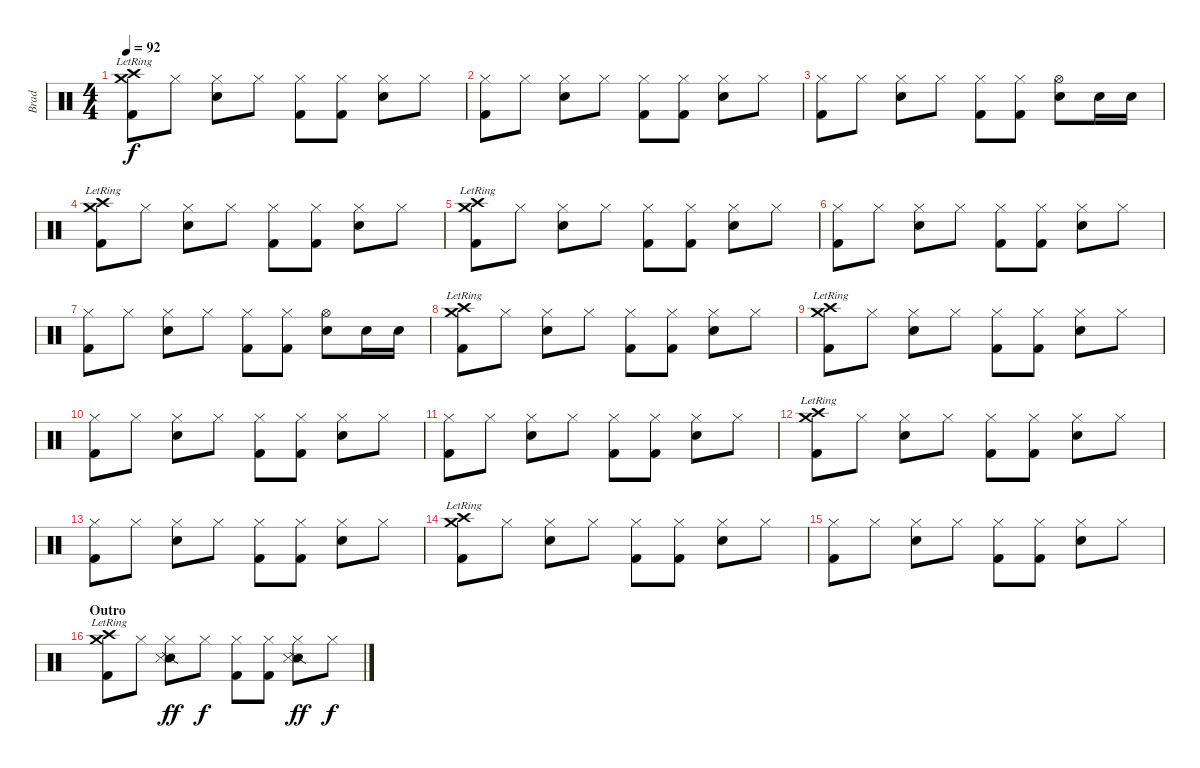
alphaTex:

\track ("Brad" "Brad") {instrument percussion}
\staff {score}
\articulation defaults
\ts (4 4)
\tempo 92
\clef neutral
\ks c
("Crash high (hit)"{lr} "Crash medium (hit)"{lr} "Kick (hit) 2").8{dy f} "Hi-Hat (closed)".8 ("Hi-Hat (closed)" "Electric Snare (hit)").8 "Hi-Hat (closed)".8 ("Hi-Hat (closed)" "Kick (hit) 2").8 ("Hi-Hat (closed)" "Kick (hit) 2").8 ("Hi-Hat (closed)" "Electric Snare (hit)").8 "Hi-Hat (closed)".8 |
("Hi-Hat (closed)" "Kick (hit) 2").8 "Hi-Hat (closed)".8 ("Hi-Hat (closed)" "Electric Snare (hit)").8 "Hi-Hat (closed)".8 ("Hi-Hat (closed)" "Kick (hit) 2").8 ("Hi-Hat (closed)" "Kick (hit) 2").8 ("Hi-Hat (closed)" "Electric Snare (hit)").8 "Hi-Hat (closed)".8 |
("Hi-Hat (closed)" "Kick (hit) 2").8 "Hi-Hat (closed)".8 ("Hi-Hat (closed)" "Electric Snare (hit)").8 "Hi-Hat (closed)".8 ("Hi-Hat (closed)" "Kick (hit) 2").8 ("Hi-Hat (closed)" "Kick (hit) 2").8 ("Hi-Hat (open)" "Electric Snare (hit)").8 "Electric Snare (hit)".16 "Electric Snare (hit)".16 |
("Crash high (hit)"{lr} "Crash medium (hit)"{lr} "Kick (hit) 2").8 "Hi-Hat (closed)".8 ("Hi-Hat (closed)" "Electric Snare (hit)").8 "Hi-Hat (closed)".8 ("Hi-Hat (closed)" "Kick (hit) 2").8 ("Hi-Hat (closed)" "Kick (hit) 2").8 ("Hi-Hat (closed)" "Electric Snare (hit)").8 "Hi-Hat (closed)".8 |
("Crash high (hit)"{lr} "Crash medium (hit)"{lr} "Kick (hit) 2").8 "Hi-Hat (closed)".8 ("Hi-Hat (closed)" "Electric Snare (hit)").8 "Hi-Hat (closed)".8 ("Hi-Hat (closed)" "Kick (hit) 2").8 ("Hi-Hat (closed)" "Kick (hit) 2").8 ("Hi-Hat (closed)" "Electric Snare (hit)").8 "Hi-Hat (closed)".8 |
("Hi-Hat (closed)" "Kick (hit) 2").8 "Hi-Hat (closed)".8 ("Hi-Hat (closed)" "Electric Snare (hit)").8 "Hi-Hat (closed)".8 ("Hi-Hat (closed)" "Kick (hit) 2").8 ("Hi-Hat (closed)" "Kick (hit) 2").8 ("Hi-Hat (closed)" "Electric Snare (hit)").8 "Hi-Hat (closed)".8 |
("Hi-Hat (closed)" "Kick (hit) 2").8 "Hi-Hat (closed)".8 ("Hi-Hat (closed)" "Electric Snare (hit)").8 "Hi-Hat (closed)".8 ("Hi-Hat (closed)" "Kick (hit) 2").8 ("Hi-Hat (closed)" "Kick (hit) 2").8 ("Hi-Hat (open)" "Electric Snare (hit)").8 "Electric Snare (hit)".16 "Electric Snare (hit)".16 |
("Crash high (hit)"{lr} "Crash medium (hit)"{lr} "Kick (hit) 2").8 "Hi-Hat (closed)".8 ("Hi-Hat (closed)" "Electric Snare (hit)").8 "Hi-Hat (closed)".8 ("Hi-Hat (closed)" "Kick (hit) 2").8 ("Hi-Hat (closed)" "Kick (hit) 2").8 ("Hi-Hat (closed)" "Electric Snare (hit)").8 "Hi-Hat (closed)".8 |
("Crash high (hit)"{lr} "Crash medium (hit)"{lr} "Kick (hit) 2").8 "Hi-Hat (closed)".8 ("Hi-Hat (closed)" "Electric Snare (hit)").8 "Hi-Hat (closed)".8 ("Hi-Hat (closed)" "Kick (hit) 2").8 ("Hi-Hat (closed)" "Kick (hit) 2").8 ("Hi-Hat (closed)" "Electric Snare (hit)").8 "Hi-Hat (closed)".8 |
("Hi-Hat (closed)" "Kick (hit) 2").8 "Hi-Hat (closed)".8 ("Hi-Hat (closed)" "Electric Snare (hit)").8 "Hi-Hat (closed)".8 ("Hi-Hat (closed)" "Kick (hit) 2").8 ("Hi-Hat (closed)" "Kick (hit) 2").8 ("Hi-Hat (closed)" "Electric Snare (hit)").8 "Hi-Hat (closed)".8 |
("Hi-Hat (closed)" "Kick (hit) 2").8 "Hi-Hat (closed)".8 ("Hi-Hat (closed)" "Electric Snare (hit)").8 "Hi-Hat (closed)".8 ("Hi-Hat (closed)" "Kick (hit) 2").8 ("Hi-Hat (closed)" "Kick (hit) 2").8 ("Hi-Hat (closed)" "Electric Snare (hit)").8 "Hi-Hat (closed)".8 |
("Crash high (hit)"{lr} "Crash medium (hit)"{lr} "Kick (hit) 2").8 "Hi-Hat (closed)".8 ("Hi-Hat (closed)" "Electric Snare (hit)").8 "Hi-Hat (closed)".8 ("Hi-Hat (closed)" "Kick (hit) 2").8 ("Hi-Hat (closed)" "Kick (hit) 2").8 ("Hi-Hat (closed)" "Electric Snare (hit)").8 "Hi-Hat (closed)".8 |
("Hi-Hat (closed)" "Kick (hit) 2").8 "Hi-Hat (closed)".8 ("Hi-Hat (closed)" "Electric Snare (hit)").8 "Hi-Hat (closed)".8 ("Hi-Hat (closed)" "Kick (hit) 2").8 ("Hi-Hat (closed)" "Kick (hit) 2").8 ("Hi-Hat (closed)" "Electric Snare (hit)").8 "Hi-Hat (closed)".8 |
("Crash high (hit)"{lr} "Crash medium (hit)"{lr} "Kick (hit) 2").8 "Hi-Hat (closed)".8 ("Hi-Hat (closed)" "Electric Snare (hit)").8 "Hi-Hat (closed)".8 ("Hi-Hat (closed)" "Kick (hit) 2").8 ("Hi-Hat (closed)" "Kick (hit) 2").8 ("Hi-Hat (closed)" "Electric Snare (hit)").8 "Hi-Hat (closed)".8 |
("Hi-Hat (closed)" "Kick (hit) 2").8 "Hi-Hat (closed)".8 ("Hi-Hat (closed)" "Electric Snare (hit)").8 "Hi-Hat (closed)".8 ("Hi-Hat (closed)" "Kick (hit) 2").8 ("Hi-Hat (closed)" "Kick (hit) 2").8 ("Hi-Hat (closed)" "Electric Snare (hit)").8 "Hi-Hat (closed)".8 |
\section ("" "Outro")
("Crash high (hit)"{lr} "Crash medium (hit)"{lr} "Kick (hit) 2").8 "Hi-Hat (closed)".8 ("Hi-Hat (closed)" "Snare (side stick) 2" "Snare (side stick) 3").8{dy ff} "Hi-Hat (closed)".8{dy f} ("Hi-Hat (closed)" "Kick (hit) 2").8 ("Hi-Hat (closed)" "Kick (hit) 2").8 ("Hi-Hat (closed)" "Snare (side stick) 2" "Snare (side stick) 3").8{dy ff} "Hi-Hat (closed)".8{dy f}
